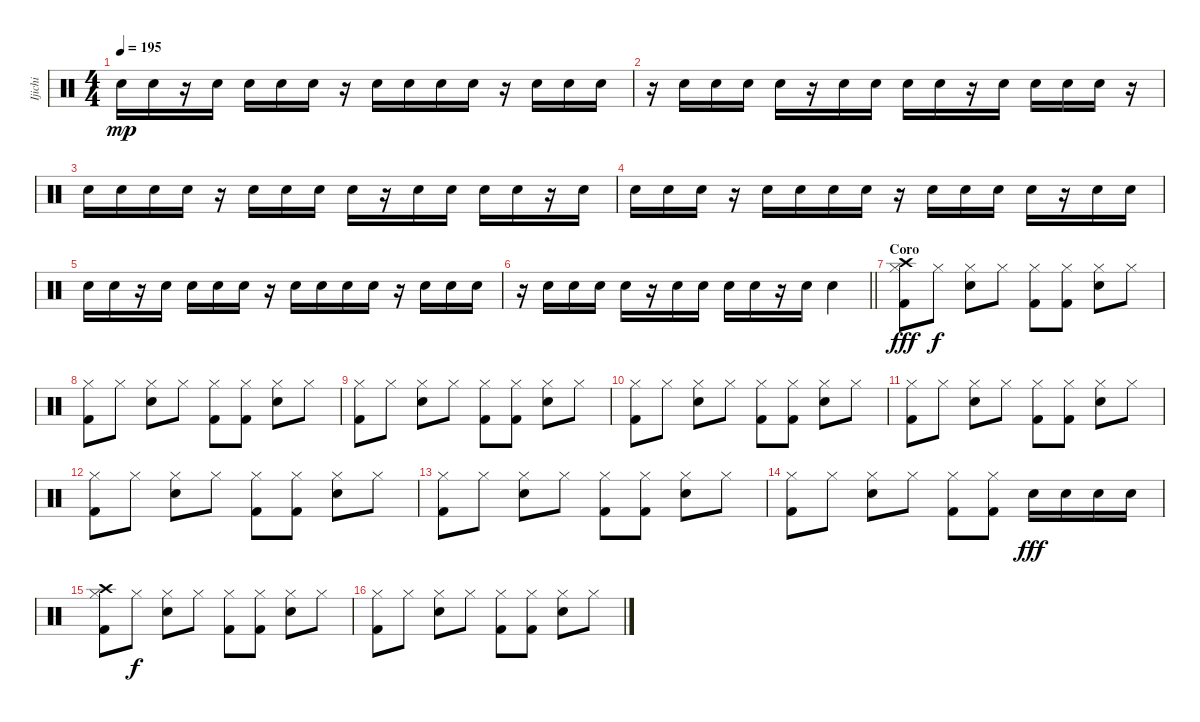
\track ("Ijichi" "Ijichi") {instrument percussion}
\staff {score}
\articulation defaults
\ts (4 4)
\tempo 195
\clef neutral
\ks c "Snare (hit) 2".16{dy mp} "Snare (hit) 2".16
r.16 "Snare (hit) 2".16 "Snare (hit) 2".16 "Snare (hit) 2".16 "Snare (hit) 2".16 r.16 "Snare (hit) 2".16 "Snare (hit) 2".16 "Snare (hit) 2".16 "Snare (hit) 2".16 r.16 "Snare (hit) 2".16 "Snare (hit) 2".16 "Snare (hit) 2".16 |
r.16 "Snare (hit) 2".16 "Snare (hit) 2".16 "Snare (hit) 2".16 "Snare (hit) 2".16 r.16 "Snare (hit) 2".16 "Snare (hit) 2".16 "Snare (hit) 2".16 "Snare (hit) 2".16 r.16 "Snare (hit) 2".16 "Snare (hit) 2".16 "Snare (hit) 2".16 "Snare (hit) 2".16 r.16 |
"Snare (hit) 2".16 "Snare (hit) 2".16 "Snare (hit) 2".16 "Snare (hit) 2".16 r.16 "Snare (hit) 2".16 "Snare (hit) 2".16 "Snare (hit) 2".16 "Snare (hit) 2".16 r.16 "Snare (hit) 2".16 "Snare (hit) 2".16 "Snare (hit) 2".16 "Snare (hit) 2".16 r.16 "Snare (hit) 2".16 |
"Snare (hit) 2".16 "Snare (hit) 2".16 "Snare (hit) 2".16 r.16 "Snare (hit) 2".16 "Snare (hit) 2".16 "Snare (hit) 2".16 "Snare (hit) 2".16 r.16 "Snare (hit) 2".16 "Snare (hit) 2".16 "Snare (hit) 2".16 "Snare (hit) 2".16 r.16 "Snare (hit) 2".16 "Snare (hit) 2".16 |
"Snare (hit) 2".16 "Snare (hit) 2".16 r.16 "Snare (hit) 2".16 "Snare (hit) 2".16 "Snare (hit) 2".16 "Snare (hit) 2".16 r.16 "Snare (hit) 2".16 "Snare (hit) 2".16 "Snare (hit) 2".16 "Snare (hit) 2".16 r.16 "Snare (hit) 2".16 "Snare (hit) 2".16 "Snare (hit) 2".16 |
\barLineRight lightlight
r.16 "Snare (hit) 2".16 "Snare (hit) 2".16 "Snare (hit) 2".16 "Snare (hit) 2".16 r.16 "Snare (hit) 2".16 "Snare (hit) 2".16 "Snare (hit) 2".16 "Snare (hit) 2".16 r.16 "Snare (hit) 2".16 "Snare (hit) 2".4 |
\section ("" "Coro")
("Hi-Hat (closed)" "Kick (hit) 2" "Crash high (hit)").8{dy fff} "Hi-Hat (closed)".8{dy f} ("Hi-Hat (closed)" "Snare (hit) 2").8 "Hi-Hat (closed)".8 ("Hi-Hat (closed)" "Kick (hit) 2").8 ("Hi-Hat (closed)" "Kick (hit) 2").8 ("Hi-Hat (closed)" "Snare (hit) 2").8 "Hi-Hat (closed)".8 |
("Hi-Hat (closed)" "Kick (hit) 2").8 "Hi-Hat (closed)".8 ("Hi-Hat (closed)" "Snare (hit) 2").8 "Hi-Hat (closed)".8 ("Hi-Hat (closed)" "Kick (hit) 2").8 ("Hi-Hat (closed)" "Kick (hit) 2").8 ("Hi-Hat (closed)" "Snare (hit) 2").8 "Hi-Hat (closed)".8 |
("Hi-Hat (closed)" "Kick (hit) 2").8 "Hi-Hat (closed)".8 ("Hi-Hat (closed)" "Snare (hit) 2").8 "Hi-Hat (closed)".8 ("Hi-Hat (closed)" "Kick (hit) 2").8 ("Hi-Hat (closed)" "Kick (hit) 2").8 ("Hi-Hat (closed)" "Snare (hit) 2").8 "Hi-Hat (closed)".8 |
("Hi-Hat (closed)" "Kick (hit) 2").8 "Hi-Hat (closed)".8 ("Hi-Hat (closed)" "Snare (hit) 2").8 "Hi-Hat (closed)".8 ("Hi-Hat (closed)" "Kick (hit) 2").8 ("Hi-Hat (closed)" "Kick (hit) 2").8 ("Hi-Hat (closed)" "Snare (hit) 2").8 "Hi-Hat (closed)".8 |
("Hi-Hat (closed)" "Kick (hit) 2").8 "Hi-Hat (closed)".8 ("Hi-Hat (closed)" "Snare (hit) 2").8 "Hi-Hat (closed)".8 ("Hi-Hat (closed)" "Kick (hit) 2").8 ("Hi-Hat (closed)" "Kick (hit) 2").8 ("Hi-Hat (closed)" "Snare (hit) 2").8 "Hi-Hat (closed)".8 |
("Hi-Hat (closed)" "Kick (hit) 2").8 "Hi-Hat (closed)".8 ("Hi-Hat (closed)" "Snare (hit) 2").8 "Hi-Hat (closed)".8 ("Hi-Hat (closed)" "Kick (hit) 2").8 ("Hi-Hat (closed)" "Kick (hit) 2").8 ("Hi-Hat (closed)" "Snare (hit) 2").8 "Hi-Hat (closed)".8 |
("Hi-Hat (closed)" "Kick (hit) 2").8 "Hi-Hat (closed)".8 ("Hi-Hat (closed)" "Snare (hit) 2").8 "Hi-Hat (closed)".8 ("Hi-Hat (closed)" "Kick (hit) 2").8 ("Hi-Hat (closed)" "Kick (hit) 2").8 ("Hi-Hat (closed)" "Snare (hit) 2").8 "Hi-Hat (closed)".8 |
("Hi-Hat (closed)" "Kick (hit) 2").8 "Hi-Hat (closed)".8 ("Hi-Hat (closed)" "Snare (hit) 2").8 "Hi-Hat (closed)".8 ("Hi-Hat (closed)" "Kick (hit) 2").8 ("Hi-Hat (closed)" "Kick (hit) 2").8 "Snare (hit) 2".16{dy fff} "Snare (hit) 2".16 "Snare (hit) 2".16 "Snare (hit) 2".16 |
("Hi-Hat (closed)" "Kick (hit) 2" "Crash high (hit)").8 "Hi-Hat (closed)".8{dy f} ("Hi-Hat (closed)" "Snare (hit) 2").8 "Hi-Hat (closed)".8 ("Hi-Hat (closed)" "Kick (hit) 2").8 ("Hi-Hat (closed)" "Kick (hit) 2").8 ("Hi-Hat (closed)" "Snare (hit) 2").8 "Hi-Hat (closed)".8 |
("Hi-Hat (closed)" "Kick (hit) 2").8 "Hi-Hat (closed)".8 ("Hi-Hat (closed)" "Snare (hit) 2").8 "Hi-Hat (closed)".8 ("Hi-Hat (closed)" "Kick (hit) 2").8 ("Hi-Hat (closed)" "Kick (hit) 2").8 ("Hi-Hat (closed)" "Snare (hit) 2").8 "Hi-Hat (closed)".8
